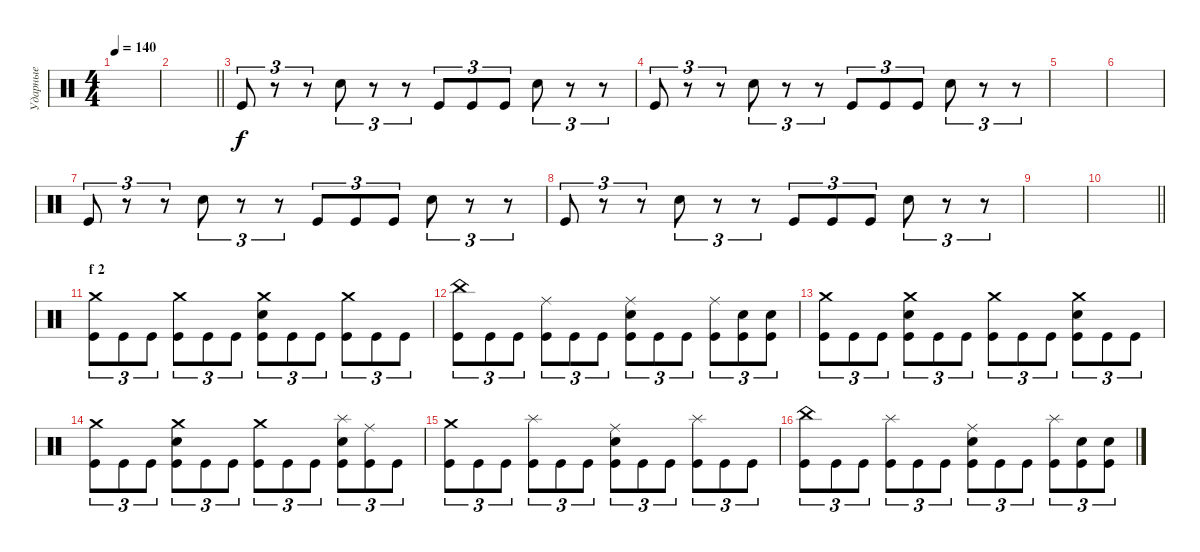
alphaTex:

\track ("Ударные" "Ударные") {instrument percussion}
\staff {score}
\articulation defaults
\ts (4 4)
\tempo 140
\clef neutral
\ks c
|
\barLineRight lightlight
|
"Kick (hit)".8{tu (3 2)} r.8{tu (3 2)} r.8{tu (3 2)} "Electric Snare (hit)".8{tu (3 2)} r.8{tu (3 2)} r.8{tu (3 2)} "Kick (hit)".8{tu (3 2)} "Kick (hit)".8{tu (3 2)} "Kick (hit)".8{tu (3 2)} "Electric Snare (hit)".8{tu (3 2)} r.8{tu (3 2)} r.8{tu (3 2)} |
"Kick (hit)".8{tu (3 2)} r.8{tu (3 2)} r.8{tu (3 2)} "Electric Snare (hit)".8{tu (3 2)} r.8{tu (3 2)} r.8{tu (3 2)} "Kick (hit)".8{tu (3 2)} "Kick (hit)".8{tu (3 2)} "Kick (hit)".8{tu (3 2)} "Electric Snare (hit)".8{tu (3 2)} r.8{tu (3 2)} r.8{tu (3 2)} |
|
|
"Kick (hit)".8{tu (3 2)} r.8{tu (3 2)} r.8{tu (3 2)} "Electric Snare (hit)".8{tu (3 2)} r.8{tu (3 2)} r.8{tu (3 2)} "Kick (hit)".8{tu (3 2)} "Kick (hit)".8{tu (3 2)} "Kick (hit)".8{tu (3 2)} "Electric Snare (hit)".8{tu (3 2)} r.8{tu (3 2)} r.8{tu (3 2)} |
"Kick (hit)".8{tu (3 2)} r.8{tu (3 2)} r.8{tu (3 2)} "Electric Snare (hit)".8{tu (3 2)} r.8{tu (3 2)} r.8{tu (3 2)} "Kick (hit)".8{tu (3 2)} "Kick (hit)".8{tu (3 2)} "Kick (hit)".8{tu (3 2)} "Electric Snare (hit)".8{tu (3 2)} r.8{tu (3 2)} r.8{tu (3 2)} |
|
\barLineRight lightlight
|
\section ("" "f 2")
("Crash medium (hit)" "Kick (hit)").8{tu (3 2)} "Kick (hit)".8{tu (3 2)} "Kick (hit)".8{tu (3 2)} ("Crash medium (hit)" "Kick (hit)").8{tu (3 2)} "Kick (hit)".8{tu (3 2)} "Kick (hit)".8{tu (3 2)} ("Crash medium (hit)" "Electric Snare (hit)" "Kick (hit)").8{tu (3 2)} "Kick (hit)".8{tu (3 2)} "Kick (hit)".8{tu (3 2)} ("Crash medium (hit)" "Kick (hit)").8{tu (3 2)} "Kick (hit)".8{tu (3 2)} "Kick (hit)".8{tu (3 2)} |
("China (hit)" "Kick (hit)").8{tu (3 2)} "Kick (hit)".8{tu (3 2)} "Kick (hit)".8{tu (3 2)} ("Ride (middle)" "Kick (hit)").8{tu (3 2)} "Kick (hit)".8{tu (3 2)} "Kick (hit)".8{tu (3 2)} ("Ride (middle)" "Electric Snare (hit)" "Kick (hit)").8{tu (3 2)} "Kick (hit)".8{tu (3 2)} "Kick (hit)".8{tu (3 2)} ("Ride (middle)" "Kick (hit)").8{tu (3 2)} ("Electric Snare (hit)" "Kick (hit)").8{tu (3 2)} ("Electric Snare (hit)" "Kick (hit)").8{tu (3 2)} |
("Crash medium (hit)" "Kick (hit)").8{tu (3 2)} "Kick (hit)".8{tu (3 2)} "Kick (hit)".8{tu (3 2)} ("Crash medium (hit)" "Electric Snare (hit)" "Kick (hit)").8{tu (3 2)} "Kick (hit)".8{tu (3 2)} "Kick (hit)".8{tu (3 2)} ("Crash medium (hit)" "Kick (hit)").8{tu (3 2)} "Kick (hit)".8{tu (3 2)} "Kick (hit)".8{tu (3 2)} ("Crash medium (hit)" "Electric Snare (hit)" "Kick (hit)").8{tu (3 2)} "Kick (hit)".8{tu (3 2)} "Kick (hit)".8{tu (3 2)} |
("Crash medium (hit)" "Kick (hit)").8{tu (3 2)} "Kick (hit)".8{tu (3 2)} "Kick (hit)".8{tu (3 2)} ("Crash medium (hit)" "Electric Snare (hit)" "Kick (hit)").8{tu (3 2)} "Kick (hit)".8{tu (3 2)} "Kick (hit)".8{tu (3 2)} ("Crash medium (hit)" "Kick (hit)").8{tu (3 2)} "Kick (hit)".8{tu (3 2)} "Kick (hit)".8{tu (3 2)} ("Splash (hit)" "Electric Snare (hit)" "Kick (hit)").8{tu (3 2)} ("Ride (middle)" "Kick (hit)").8{tu (3 2)} "Kick (hit)".8{tu (3 2)} |
("Crash medium (hit)" "Kick (hit)").8{tu (3 2)} "Kick (hit)".8{tu (3 2)} "Kick (hit)".8{tu (3 2)} ("Splash (hit)" "Kick (hit)").8{tu (3 2)} "Kick (hit)".8{tu (3 2)} "Kick (hit)".8{tu (3 2)} ("Ride (middle)" "Electric Snare (hit)" "Kick (hit)").8{tu (3 2)} "Kick (hit)".8{tu (3 2)} "Kick (hit)".8{tu (3 2)} ("Splash (hit)" "Kick (hit)").8{tu (3 2)} "Kick (hit)".8{tu (3 2)} "Kick (hit)".8{tu (3 2)} |
("China (hit)" "Kick (hit)").8{tu (3 2)} "Kick (hit)".8{tu (3 2)} "Kick (hit)".8{tu (3 2)} ("Splash (hit)" "Kick (hit)").8{tu (3 2)} "Kick (hit)".8{tu (3 2)} "Kick (hit)".8{tu (3 2)} ("Ride (middle)" "Electric Snare (hit)" "Kick (hit)").8{tu (3 2)} "Kick (hit)".8{tu (3 2)} "Kick (hit)".8{tu (3 2)} ("Splash (hit)" "Kick (hit)").8{tu (3 2)} ("Electric Snare (hit)" "Kick (hit)").8{tu (3 2)} ("Electric Snare (hit)" "Kick (hit)").8{tu (3 2)}
